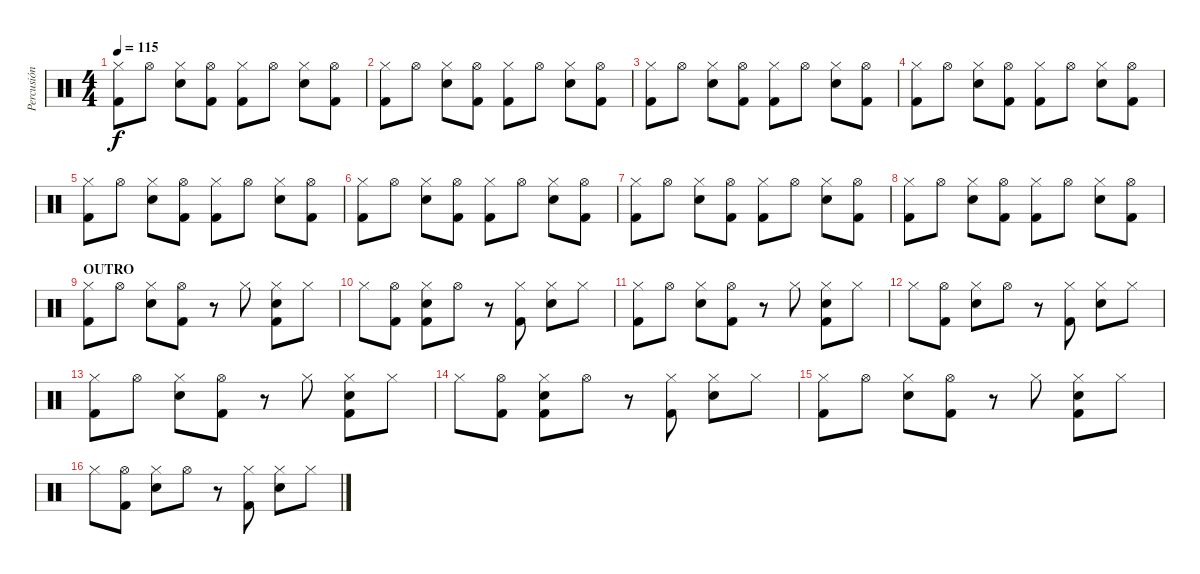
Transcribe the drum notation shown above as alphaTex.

\track ("Percusión" "Percusión") {instrument percussion}
\staff {score}
\articulation defaults
\ts (4 4)
\tempo 115
\clef neutral
\ks c
("Hi-Hat (closed)" "Kick (hit) 2").8{dy f} "Hi-Hat (open)".8 ("Hi-Hat (closed)" "Electric Snare (hit)").8 ("Hi-Hat (open)" "Kick (hit) 2").8 ("Hi-Hat (closed)" "Kick (hit) 2").8 "Hi-Hat (open)".8 ("Hi-Hat (closed)" "Electric Snare (hit)").8 ("Hi-Hat (open)" "Kick (hit) 2").8 |
("Hi-Hat (closed)" "Kick (hit) 2").8 "Hi-Hat (open)".8 ("Hi-Hat (closed)" "Electric Snare (hit)").8 ("Hi-Hat (open)" "Kick (hit) 2").8 ("Hi-Hat (closed)" "Kick (hit) 2").8 "Hi-Hat (open)".8 ("Hi-Hat (closed)" "Electric Snare (hit)").8 ("Hi-Hat (open)" "Kick (hit) 2").8 |
("Hi-Hat (closed)" "Kick (hit) 2").8 "Hi-Hat (open)".8 ("Hi-Hat (closed)" "Electric Snare (hit)").8 ("Hi-Hat (open)" "Kick (hit) 2").8 ("Hi-Hat (closed)" "Kick (hit) 2").8 "Hi-Hat (open)".8 ("Hi-Hat (closed)" "Electric Snare (hit)").8 ("Hi-Hat (open)" "Kick (hit) 2").8 |
("Hi-Hat (closed)" "Kick (hit) 2").8 "Hi-Hat (open)".8 ("Hi-Hat (closed)" "Electric Snare (hit)").8 ("Hi-Hat (open)" "Kick (hit) 2").8 ("Hi-Hat (closed)" "Kick (hit) 2").8 "Hi-Hat (open)".8 ("Hi-Hat (closed)" "Electric Snare (hit)").8 ("Hi-Hat (open)" "Kick (hit) 2").8 |
("Hi-Hat (closed)" "Kick (hit) 2").8 "Hi-Hat (open)".8 ("Hi-Hat (closed)" "Electric Snare (hit)").8 ("Hi-Hat (open)" "Kick (hit) 2").8 ("Hi-Hat (closed)" "Kick (hit) 2").8 "Hi-Hat (open)".8 ("Hi-Hat (closed)" "Electric Snare (hit)").8 ("Hi-Hat (open)" "Kick (hit) 2").8 |
("Hi-Hat (closed)" "Kick (hit) 2").8 "Hi-Hat (open)".8 ("Hi-Hat (closed)" "Electric Snare (hit)").8 ("Hi-Hat (open)" "Kick (hit) 2").8 ("Hi-Hat (closed)" "Kick (hit) 2").8 "Hi-Hat (open)".8 ("Hi-Hat (closed)" "Electric Snare (hit)").8 ("Hi-Hat (open)" "Kick (hit) 2").8 |
("Hi-Hat (closed)" "Kick (hit) 2").8 "Hi-Hat (open)".8 ("Hi-Hat (closed)" "Electric Snare (hit)").8 ("Hi-Hat (open)" "Kick (hit) 2").8 ("Hi-Hat (closed)" "Kick (hit) 2").8 "Hi-Hat (open)".8 ("Hi-Hat (closed)" "Electric Snare (hit)").8 ("Hi-Hat (open)" "Kick (hit) 2").8 |
("Hi-Hat (closed)" "Kick (hit) 2").8 "Hi-Hat (open)".8 ("Hi-Hat (closed)" "Electric Snare (hit)").8 ("Hi-Hat (open)" "Kick (hit) 2").8 ("Hi-Hat (closed)" "Kick (hit) 2").8 "Hi-Hat (open)".8 ("Hi-Hat (closed)" "Electric Snare (hit)").8 ("Hi-Hat (open)" "Kick (hit) 2").8 |
\section ("" "OUTRO")
("Hi-Hat (closed)" "Kick (hit) 2").8 "Hi-Hat (open)".8 ("Hi-Hat (closed)" "Electric Snare (hit)").8 ("Hi-Hat (open)" "Kick (hit) 2").8 r.8 "Hi-Hat (closed)".8 ("Hi-Hat (closed)" "Electric Snare (hit)" "Kick (hit) 2").8 "Hi-Hat (closed)".8 |
"Hi-Hat (closed)".8 ("Hi-Hat (open)" "Kick (hit) 2").8 ("Hi-Hat (closed)" "Electric Snare (hit)" "Kick (hit) 2").8 "Hi-Hat (open)".8 r.8 ("Hi-Hat (closed)" "Kick (hit) 2").8 ("Hi-Hat (closed)" "Electric Snare (hit)").8 "Hi-Hat (closed)".8 |
("Hi-Hat (closed)" "Kick (hit) 2").8 "Hi-Hat (open)".8 ("Hi-Hat (closed)" "Electric Snare (hit)").8 ("Hi-Hat (open)" "Kick (hit) 2").8 r.8 "Hi-Hat (closed)".8 ("Hi-Hat (closed)" "Electric Snare (hit)" "Kick (hit) 2").8 "Hi-Hat (closed)".8 |
"Hi-Hat (closed)".8 ("Hi-Hat (open)" "Kick (hit) 2").8 ("Hi-Hat (closed)" "Electric Snare (hit)").8 "Hi-Hat (open)".8 r.8 ("Hi-Hat (closed)" "Kick (hit) 2").8 ("Hi-Hat (closed)" "Electric Snare (hit)").8 "Hi-Hat (closed)".8 |
("Hi-Hat (closed)" "Kick (hit) 2").8 "Hi-Hat (open)".8 ("Hi-Hat (closed)" "Electric Snare (hit)").8 ("Hi-Hat (open)" "Kick (hit) 2").8 r.8 "Hi-Hat (closed)".8 ("Hi-Hat (closed)" "Electric Snare (hit)" "Kick (hit) 2").8 "Hi-Hat (closed)".8 |
"Hi-Hat (closed)".8 ("Hi-Hat (open)" "Kick (hit) 2").8 ("Hi-Hat (closed)" "Electric Snare (hit)" "Kick (hit) 2").8 "Hi-Hat (open)".8 r.8 ("Hi-Hat (closed)" "Kick (hit) 2").8 ("Hi-Hat (closed)" "Electric Snare (hit)").8 "Hi-Hat (closed)".8 |
("Hi-Hat (closed)" "Kick (hit) 2").8 "Hi-Hat (open)".8 ("Hi-Hat (closed)" "Electric Snare (hit)").8 ("Hi-Hat (open)" "Kick (hit) 2").8 r.8 "Hi-Hat (closed)".8 ("Hi-Hat (closed)" "Electric Snare (hit)" "Kick (hit) 2").8 "Hi-Hat (closed)".8 |
"Hi-Hat (closed)".8 ("Hi-Hat (open)" "Kick (hit) 2").8 ("Hi-Hat (closed)" "Electric Snare (hit)").8 "Hi-Hat (open)".8 r.8 ("Hi-Hat (closed)" "Kick (hit) 2").8 ("Hi-Hat (closed)" "Electric Snare (hit)").8 "Hi-Hat (closed)".8
